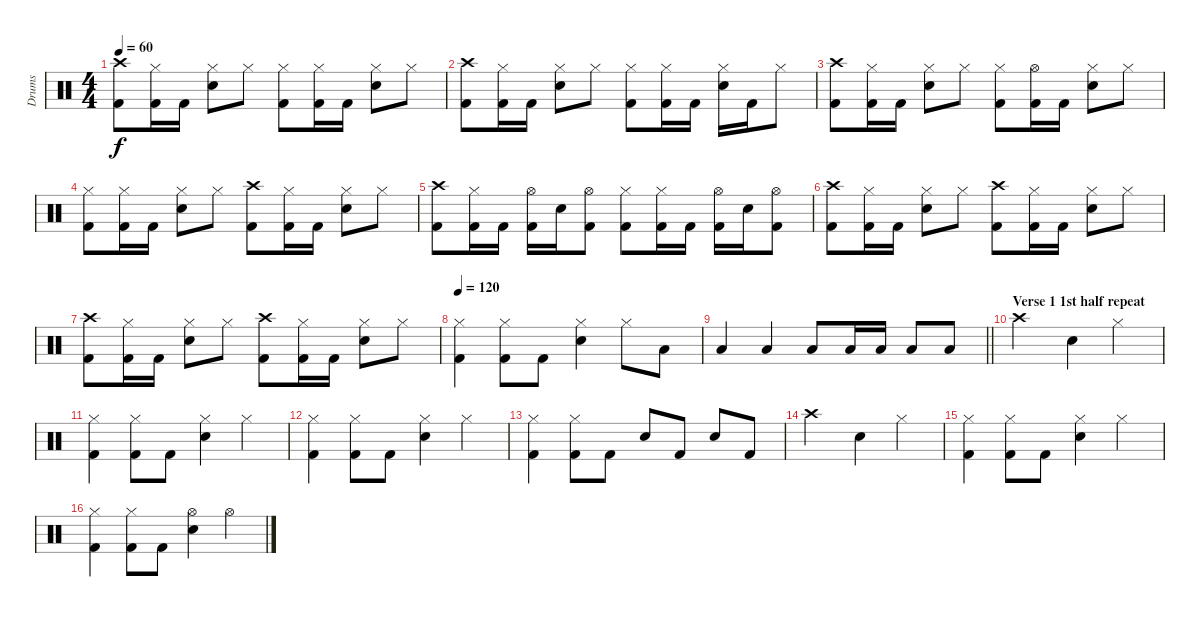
\track ("Drums" "Drums") {instrument percussion}
\staff {score}
\articulation defaults
\ts (4 4)
\tempo 60
\clef neutral
\ks c
("Crash high (hit)" "Kick (hit) 2").8{dy f} ("Hi-Hat (closed)" "Kick (hit) 2").16 "Kick (hit) 2".16 ("Hi-Hat (closed)" "Snare (hit) 2").8 "Hi-Hat (closed)".8 ("Hi-Hat (closed)" "Kick (hit) 2").8 ("Hi-Hat (closed)" "Kick (hit) 2").16 "Kick (hit) 2".16 ("Hi-Hat (closed)" "Snare (hit) 2").8 "Hi-Hat (closed)".8 |
("Crash high (hit)" "Kick (hit) 2").8 ("Hi-Hat (closed)" "Kick (hit) 2").16 "Kick (hit) 2".16 ("Hi-Hat (closed)" "Snare (hit) 2").8 "Hi-Hat (closed)".8 ("Hi-Hat (closed)" "Kick (hit) 2").8 ("Hi-Hat (closed)" "Kick (hit) 2").16 "Kick (hit) 2".16 ("Hi-Hat (closed)" "Snare (hit) 2").16 "Kick (hit) 2".16 "Hi-Hat (closed)".8 |
("Crash high (hit)" "Kick (hit) 2").8 ("Hi-Hat (closed)" "Kick (hit) 2").16 "Kick (hit) 2".16 ("Hi-Hat (closed)" "Snare (hit) 2").8 "Hi-Hat (closed)".8 ("Hi-Hat (closed)" "Kick (hit) 2").8 ("Hi-Hat (open)" "Kick (hit) 2").16 "Kick (hit) 2".16 ("Hi-Hat (closed)" "Snare (hit) 2").8 "Hi-Hat (closed)".8 |
("Hi-Hat (closed)" "Kick (hit) 2").8 ("Hi-Hat (closed)" "Kick (hit) 2").16 "Kick (hit) 2".16 ("Hi-Hat (closed)" "Snare (hit) 2").8 "Hi-Hat (closed)".8 ("Crash high (hit)" "Kick (hit) 2").8 ("Hi-Hat (closed)" "Kick (hit) 2").16 "Kick (hit) 2".16 ("Hi-Hat (closed)" "Snare (hit) 2").8 "Hi-Hat (closed)".8 |
("Crash high (hit)" "Kick (hit) 2").8 ("Hi-Hat (closed)" "Kick (hit) 2").16 "Kick (hit) 2".16 ("Hi-Hat (open)" "Kick (hit) 2").16 "Snare (hit) 2".16 ("Hi-Hat (open)" "Kick (hit) 2").8 ("Hi-Hat (closed)" "Kick (hit) 2").8 ("Hi-Hat (closed)" "Kick (hit) 2").16 "Kick (hit) 2".16 ("Hi-Hat (open)" "Kick (hit) 2").16 "Snare (hit) 2".16 ("Hi-Hat (open)" "Kick (hit) 2").8 |
("Crash high (hit)" "Kick (hit) 2").8 ("Hi-Hat (closed)" "Kick (hit) 2").16 "Kick (hit) 2".16 ("Hi-Hat (closed)" "Snare (hit) 2").8 "Hi-Hat (closed)".8 ("Crash high (hit)" "Kick (hit) 2").8 ("Hi-Hat (closed)" "Kick (hit) 2").16 "Kick (hit) 2".16 ("Hi-Hat (closed)" "Snare (hit) 2").8 "Hi-Hat (closed)".8 |
("Crash high (hit)" "Kick (hit) 2").8 ("Hi-Hat (closed)" "Kick (hit) 2").16 "Kick (hit) 2".16 ("Hi-Hat (closed)" "Snare (hit) 2").8 "Hi-Hat (closed)".8 ("Crash high (hit)" "Kick (hit) 2").8 ("Hi-Hat (closed)" "Kick (hit) 2").16 "Kick (hit) 2".16 ("Hi-Hat (closed)" "Snare (hit) 2").8 "Hi-Hat (closed)".8 |
\tempo 120
("Hi-Hat (closed)" "Kick (hit) 2").4 ("Hi-Hat (closed)" "Kick (hit) 2").8 "Kick (hit) 2".8 ("Hi-Hat (closed)" "Snare (hit) 2").4 "Hi-Hat (closed)".8 "Low Tom (hit)".8 |
\barLineRight lightlight "Low Tom (hit)".4 "Low Tom (hit)".4 "Low Tom (hit)".8 "Low Tom (hit)".16 "Low Tom (hit)".16 "Low Tom (hit)".8 "Low Tom (hit)".8
|
\section ("" "Verse 1 1st half repeat")
"Crash high (hit)".2 "Snare (hit) 2".4 "Hi-Hat (closed)".4 |
("Hi-Hat (closed)" "Kick (hit) 2").4 ("Hi-Hat (closed)" "Kick (hit) 2").8 "Kick (hit) 2".8 ("Hi-Hat (closed)" "Snare (hit) 2").4 "Hi-Hat (closed)".4 |
("Hi-Hat (closed)" "Kick (hit) 2").4 ("Hi-Hat (closed)" "Kick (hit) 2").8 "Kick (hit) 2".8 ("Hi-Hat (closed)" "Snare (hit) 2").4 "Hi-Hat (closed)".4 |
("Hi-Hat (closed)" "Kick (hit) 2").4 ("Hi-Hat (closed)" "Kick (hit) 2").8 "Kick (hit) 2".8 "Snare (hit) 2".8 "Kick (hit) 2".8 "Snare (hit) 2".8 "Kick (hit) 2".8 |
"Crash high (hit)".2 "Snare (hit) 2".4 "Hi-Hat (closed)".4 |
("Hi-Hat (closed)" "Kick (hit) 2").4 ("Hi-Hat (closed)" "Kick (hit) 2").8 "Kick (hit) 2".8 ("Hi-Hat (closed)" "Snare (hit) 2").4 "Hi-Hat (closed)".4 |
("Hi-Hat (closed)" "Kick (hit) 2").4 ("Hi-Hat (closed)" "Kick (hit) 2").8 "Kick (hit) 2".8 ("Hi-Hat (open)" "Snare (hit) 2").4 "Hi-Hat (open)".4
